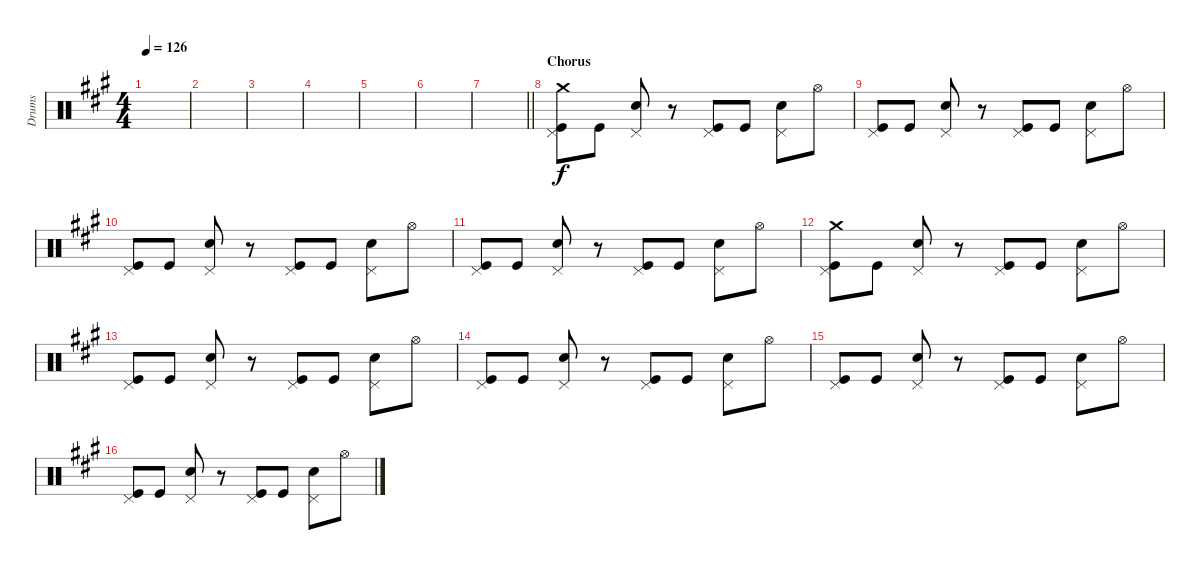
\track ("Drums" "Drums") {instrument percussion}
\staff {score}
\articulation defaults
\ts (4 4)
\tempo 126
\clef neutral
\ks a
|
|
|
|
|
|
\barLineRight lightlight
|
\section ("" "Chorus")
("Crash medium (hit)" "Pedal Hi-Hat (hit)" "Kick (hit)").8 "Kick (hit)".8 ("Pedal Hi-Hat (hit)" "Snare (hit) 2").8 r.8 ("Pedal Hi-Hat (hit)" "Kick (hit)").8 "Kick (hit)".8 ("Pedal Hi-Hat (hit)" "Snare (hit) 2").8 "Hi-Hat (open)".8 |
("Pedal Hi-Hat (hit)" "Kick (hit)").8 "Kick (hit)".8 ("Pedal Hi-Hat (hit)" "Snare (hit) 2").8 r.8 ("Pedal Hi-Hat (hit)" "Kick (hit)").8 "Kick (hit)".8 ("Pedal Hi-Hat (hit)" "Snare (hit) 2").8 "Hi-Hat (open)".8 |
("Pedal Hi-Hat (hit)" "Kick (hit)").8 "Kick (hit)".8 ("Pedal Hi-Hat (hit)" "Snare (hit) 2").8 r.8 ("Pedal Hi-Hat (hit)" "Kick (hit)").8 "Kick (hit)".8 ("Pedal Hi-Hat (hit)" "Snare (hit) 2").8 "Hi-Hat (open)".8 |
("Pedal Hi-Hat (hit)" "Kick (hit)").8 "Kick (hit)".8 ("Pedal Hi-Hat (hit)" "Snare (hit) 2").8 r.8 ("Pedal Hi-Hat (hit)" "Kick (hit)").8 "Kick (hit)".8 ("Pedal Hi-Hat (hit)" "Snare (hit) 2").8 "Hi-Hat (open)".8 |
("Crash medium (hit)" "Pedal Hi-Hat (hit)" "Kick (hit)").8 "Kick (hit)".8 ("Pedal Hi-Hat (hit)" "Snare (hit) 2").8 r.8 ("Pedal Hi-Hat (hit)" "Kick (hit)").8 "Kick (hit)".8 ("Pedal Hi-Hat (hit)" "Snare (hit) 2").8 "Hi-Hat (open)".8 |
("Pedal Hi-Hat (hit)" "Kick (hit)").8 "Kick (hit)".8 ("Pedal Hi-Hat (hit)" "Snare (hit) 2").8 r.8 ("Pedal Hi-Hat (hit)" "Kick (hit)").8 "Kick (hit)".8 ("Pedal Hi-Hat (hit)" "Snare (hit) 2").8 "Hi-Hat (open)".8 |
("Pedal Hi-Hat (hit)" "Kick (hit)").8 "Kick (hit)".8 ("Pedal Hi-Hat (hit)" "Snare (hit) 2").8 r.8 ("Pedal Hi-Hat (hit)" "Kick (hit)").8 "Kick (hit)".8 ("Pedal Hi-Hat (hit)" "Snare (hit) 2").8 "Hi-Hat (open)".8 |
("Pedal Hi-Hat (hit)" "Kick (hit)").8 "Kick (hit)".8 ("Pedal Hi-Hat (hit)" "Snare (hit) 2").8 r.8 ("Pedal Hi-Hat (hit)" "Kick (hit)").8 "Kick (hit)".8 ("Pedal Hi-Hat (hit)" "Snare (hit) 2").8 "Hi-Hat (open)".8 |
("Pedal Hi-Hat (hit)" "Kick (hit)").8 "Kick (hit)".8 ("Pedal Hi-Hat (hit)" "Snare (hit) 2").8 r.8 ("Pedal Hi-Hat (hit)" "Kick (hit)").8 "Kick (hit)".8 ("Pedal Hi-Hat (hit)" "Snare (hit) 2").8 "Hi-Hat (open)".8
